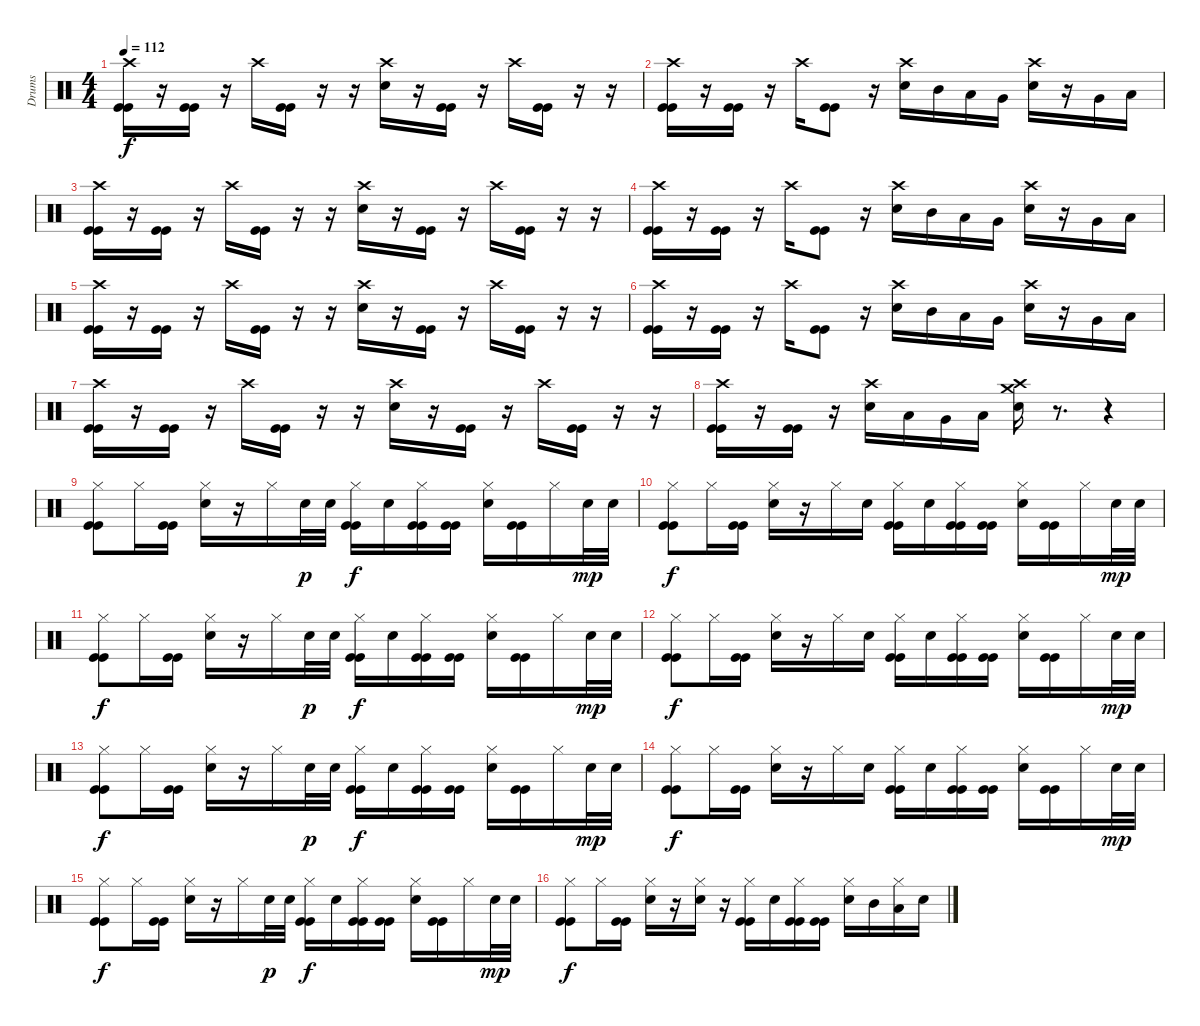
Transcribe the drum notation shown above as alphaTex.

\track ("Drums" "Drums") {instrument percussion}
\staff {score}
\articulation defaults
\ts (4 4)
\tempo 112
\clef neutral
\ks c
("Crash high (hit)" "Kick (hit)" "Kick (hit)").16{dy f} r.16 ("Kick (hit)" "Kick (hit)").16 r.16 "Crash high (hit)".16 ("Kick (hit)" "Kick (hit)").16 r.16 r.16 ("Crash high (hit)" "Electric Snare (hit)").16 r.16 ("Kick (hit)" "Kick (hit)").16 r.16 "Crash high (hit)".16 ("Kick (hit)" "Kick (hit)").16 r.16 r.16 |
("Crash high (hit)" "Kick (hit)" "Kick (hit)").16 r.16 ("Kick (hit)" "Kick (hit)").16 r.16 "Crash high (hit)".16 ("Kick (hit)" "Kick (hit)").8 r.16 ("Crash high (hit)" "Electric Snare (hit)").16 "Mid Tom (hit)".16 "Low Tom (hit)".16 "Very Low Tom (hit)".16 ("Crash high (hit)" "Electric Snare (hit)").16 r.16 "Very Low Tom (hit)".16 "Low Floor Tom (hit)".16 |
("Crash high (hit)" "Kick (hit)" "Kick (hit)").16 r.16 ("Kick (hit)" "Kick (hit)").16 r.16 "Crash high (hit)".16 ("Kick (hit)" "Kick (hit)").16 r.16 r.16 ("Crash high (hit)" "Electric Snare (hit)").16 r.16 ("Kick (hit)" "Kick (hit)").16 r.16 "Crash high (hit)".16 ("Kick (hit)" "Kick (hit)").16 r.16 r.16 |
("Crash high (hit)" "Kick (hit)" "Kick (hit)").16 r.16 ("Kick (hit)" "Kick (hit)").16 r.16 "Crash high (hit)".16 ("Kick (hit)" "Kick (hit)").8 r.16 ("Crash high (hit)" "Electric Snare (hit)").16 "Mid Tom (hit)".16 "Low Tom (hit)".16 "Very Low Tom (hit)".16 ("Crash high (hit)" "Electric Snare (hit)").16 r.16 "Very Low Tom (hit)".16 "Low Floor Tom (hit)".16 |
("Crash high (hit)" "Kick (hit)" "Kick (hit)").16 r.16 ("Kick (hit)" "Kick (hit)").16 r.16 "Crash high (hit)".16 ("Kick (hit)" "Kick (hit)").16 r.16 r.16 ("Crash high (hit)" "Electric Snare (hit)").16 r.16 ("Kick (hit)" "Kick (hit)").16 r.16 "Crash high (hit)".16 ("Kick (hit)" "Kick (hit)").16 r.16 r.16 |
("Crash high (hit)" "Kick (hit)" "Kick (hit)").16 r.16 ("Kick (hit)" "Kick (hit)").16 r.16 "Crash high (hit)".16 ("Kick (hit)" "Kick (hit)").8 r.16 ("Crash high (hit)" "Electric Snare (hit)").16 "Mid Tom (hit)".16 "Low Tom (hit)".16 "Very Low Tom (hit)".16 ("Crash high (hit)" "Electric Snare (hit)").16 r.16 "Very Low Tom (hit)".16 "Low Floor Tom (hit)".16 |
("Crash high (hit)" "Kick (hit)" "Kick (hit)").16 r.16 ("Kick (hit)" "Kick (hit)").16 r.16 "Crash high (hit)".16 ("Kick (hit)" "Kick (hit)").16 r.16 r.16 ("Crash high (hit)" "Electric Snare (hit)").16 r.16 ("Kick (hit)" "Kick (hit)").16 r.16 "Crash high (hit)".16 ("Kick (hit)" "Kick (hit)").16 r.16 r.16 |
("Crash high (hit)" "Kick (hit)" "Kick (hit)").16 r.16 ("Kick (hit)" "Kick (hit)").16 r.16 ("Crash high (hit)" "Electric Snare (hit)").16 "Low Tom (hit)".16 "Very Low Tom (hit)".16 "Low Floor Tom (hit)".16 ("Crash high (hit)" "Crash medium (hit)" "Electric Snare (hit)").16 r.8{d} r.4 |
("Hi-Hat (closed)" "Kick (hit)" "Kick (hit)").8 "Hi-Hat (closed)".16 ("Kick (hit)" "Kick (hit)").16 ("Hi-Hat (closed)" "Electric Snare (hit)").16 r.16 "Hi-Hat (closed)".16 "Electric Snare (hit)".32{dy p} "Electric Snare (hit)".32 ("Hi-Hat (closed)" "Kick (hit)" "Kick (hit)").16{dy f} "Electric Snare (hit)".16 ("Hi-Hat (closed)" "Kick (hit)" "Kick (hit)").16 ("Kick (hit)" "Kick (hit)").16 ("Hi-Hat (closed)" "Electric Snare (hit)").16 ("Kick (hit)" "Kick (hit)").16 "Hi-Hat (closed)".16 "Electric Snare (hit)".32{dy mp} "Electric Snare (hit)".32 |
("Hi-Hat (closed)" "Kick (hit)" "Kick (hit)").8{dy f} "Hi-Hat (closed)".16 ("Kick (hit)" "Kick (hit)").16 ("Hi-Hat (closed)" "Electric Snare (hit)").16 r.16 "Hi-Hat (closed)".16 "Electric Snare (hit)".16 ("Hi-Hat (closed)" "Kick (hit)" "Kick (hit)").16 "Electric Snare (hit)".16 ("Hi-Hat (closed)" "Kick (hit)" "Kick (hit)").16 ("Kick (hit)" "Kick (hit)").16 ("Hi-Hat (closed)" "Electric Snare (hit)").16 ("Kick (hit)" "Kick (hit)").16 "Hi-Hat (closed)".16 "Electric Snare (hit)".32{dy mp} "Electric Snare (hit)".32 |
("Hi-Hat (closed)" "Kick (hit)" "Kick (hit)").8{dy f} "Hi-Hat (closed)".16 ("Kick (hit)" "Kick (hit)").16 ("Hi-Hat (closed)" "Electric Snare (hit)").16 r.16 "Hi-Hat (closed)".16 "Electric Snare (hit)".32{dy p} "Electric Snare (hit)".32 ("Hi-Hat (closed)" "Kick (hit)" "Kick (hit)").16{dy f} "Electric Snare (hit)".16 ("Hi-Hat (closed)" "Kick (hit)" "Kick (hit)").16 ("Kick (hit)" "Kick (hit)").16 ("Hi-Hat (closed)" "Electric Snare (hit)").16 ("Kick (hit)" "Kick (hit)").16 "Hi-Hat (closed)".16 "Electric Snare (hit)".32{dy mp} "Electric Snare (hit)".32 |
("Hi-Hat (closed)" "Kick (hit)" "Kick (hit)").8{dy f} "Hi-Hat (closed)".16 ("Kick (hit)" "Kick (hit)").16 ("Hi-Hat (closed)" "Electric Snare (hit)").16 r.16 "Hi-Hat (closed)".16 "Electric Snare (hit)".16 ("Hi-Hat (closed)" "Kick (hit)" "Kick (hit)").16 "Electric Snare (hit)".16 ("Hi-Hat (closed)" "Kick (hit)" "Kick (hit)").16 ("Kick (hit)" "Kick (hit)").16 ("Hi-Hat (closed)" "Electric Snare (hit)").16 ("Kick (hit)" "Kick (hit)").16 "Hi-Hat (closed)".16 "Electric Snare (hit)".32{dy mp} "Electric Snare (hit)".32 |
("Hi-Hat (closed)" "Kick (hit)" "Kick (hit)").8{dy f} "Hi-Hat (closed)".16 ("Kick (hit)" "Kick (hit)").16 ("Hi-Hat (closed)" "Electric Snare (hit)").16 r.16 "Hi-Hat (closed)".16 "Electric Snare (hit)".32{dy p} "Electric Snare (hit)".32 ("Hi-Hat (closed)" "Kick (hit)" "Kick (hit)").16{dy f} "Electric Snare (hit)".16 ("Hi-Hat (closed)" "Kick (hit)" "Kick (hit)").16 ("Kick (hit)" "Kick (hit)").16 ("Hi-Hat (closed)" "Electric Snare (hit)").16 ("Kick (hit)" "Kick (hit)").16 "Hi-Hat (closed)".16 "Electric Snare (hit)".32{dy mp} "Electric Snare (hit)".32 |
("Hi-Hat (closed)" "Kick (hit)" "Kick (hit)").8{dy f} "Hi-Hat (closed)".16 ("Kick (hit)" "Kick (hit)").16 ("Hi-Hat (closed)" "Electric Snare (hit)").16 r.16 "Hi-Hat (closed)".16 "Electric Snare (hit)".16 ("Hi-Hat (closed)" "Kick (hit)" "Kick (hit)").16 "Electric Snare (hit)".16 ("Hi-Hat (closed)" "Kick (hit)" "Kick (hit)").16 ("Kick (hit)" "Kick (hit)").16 ("Hi-Hat (closed)" "Electric Snare (hit)").16 ("Kick (hit)" "Kick (hit)").16 "Hi-Hat (closed)".16 "Electric Snare (hit)".32{dy mp} "Electric Snare (hit)".32 |
("Hi-Hat (closed)" "Kick (hit)" "Kick (hit)").8{dy f} "Hi-Hat (closed)".16 ("Kick (hit)" "Kick (hit)").16 ("Hi-Hat (closed)" "Electric Snare (hit)").16 r.16 "Hi-Hat (closed)".16 "Electric Snare (hit)".32{dy p} "Electric Snare (hit)".32 ("Hi-Hat (closed)" "Kick (hit)" "Kick (hit)").16{dy f} "Electric Snare (hit)".16 ("Hi-Hat (closed)" "Kick (hit)" "Kick (hit)").16 ("Kick (hit)" "Kick (hit)").16 ("Hi-Hat (closed)" "Electric Snare (hit)").16 ("Kick (hit)" "Kick (hit)").16 "Hi-Hat (closed)".16 "Electric Snare (hit)".32{dy mp} "Electric Snare (hit)".32 |
("Hi-Hat (closed)" "Kick (hit)" "Kick (hit)").8{dy f} "Hi-Hat (closed)".16 ("Kick (hit)" "Kick (hit)").16 ("Hi-Hat (closed)" "Electric Snare (hit)").16 r.16 ("Hi-Hat (closed)" "Electric Snare (hit)").16 r.16 ("Hi-Hat (closed)" "Kick (hit)" "Kick (hit)").16 "Electric Snare (hit)".16 ("Hi-Hat (closed)" "Kick (hit)" "Kick (hit)").16 ("Kick (hit)" "Kick (hit)").16 ("Hi-Hat (closed)" "Electric Snare (hit)").16 "Mid Tom (hit)".16 ("Hi-Hat (closed)" "Low Tom (hit)").16 "Electric Snare (hit)".16
